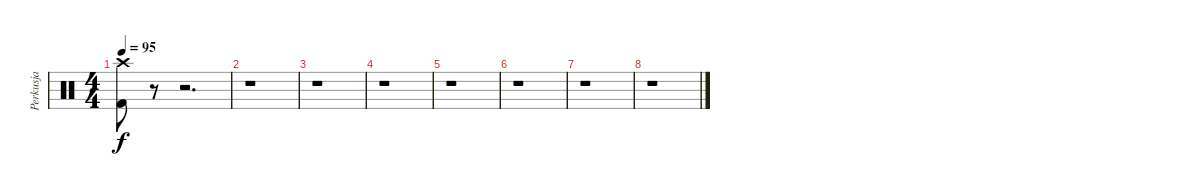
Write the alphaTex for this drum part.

\track ("Perkusja" "Perkusja") {instrument percussion}
\staff {score}
\articulation defaults
\ts (4 4)
\tempo 95
\clef neutral
\ks c
("Kick (hit) 2" "Crash high (hit)").8{dy f} r.8 r.2{d} |
r.1 |
r.1 |
r.1 |
r.1 |
r.1 |
r.1 |
r.1
